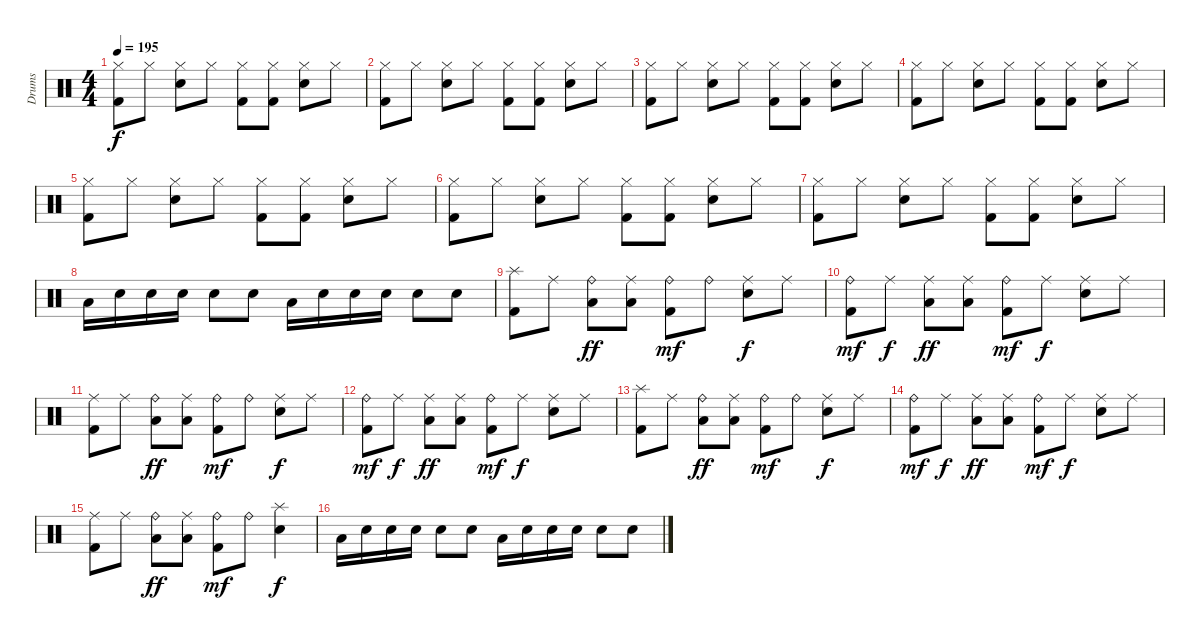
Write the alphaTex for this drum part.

\track ("Drums" "Drums") {instrument percussion}
\staff {score}
\articulation defaults
\ts (4 4)
\tempo 195
\clef neutral
\ks c
("Hi-Hat (closed)" "Kick (hit) 2").8{dy f} "Hi-Hat (closed)".8 ("Hi-Hat (closed)" "Snare (hit) 2").8 "Hi-Hat (closed)".8 ("Hi-Hat (closed)" "Kick (hit) 2").8 ("Hi-Hat (closed)" "Kick (hit) 2").8 ("Hi-Hat (closed)" "Snare (hit) 2").8 "Hi-Hat (closed)".8 |
("Hi-Hat (closed)" "Kick (hit) 2").8 "Hi-Hat (closed)".8 ("Hi-Hat (closed)" "Snare (hit) 2").8 "Hi-Hat (closed)".8 ("Hi-Hat (closed)" "Kick (hit) 2").8 ("Hi-Hat (closed)" "Kick (hit) 2").8 ("Hi-Hat (closed)" "Snare (hit) 2").8 "Hi-Hat (closed)".8 |
("Hi-Hat (closed)" "Kick (hit) 2").8 "Hi-Hat (closed)".8 ("Hi-Hat (closed)" "Snare (hit) 2").8 "Hi-Hat (closed)".8 ("Hi-Hat (closed)" "Kick (hit) 2").8 ("Hi-Hat (closed)" "Kick (hit) 2").8 ("Hi-Hat (closed)" "Snare (hit) 2").8 "Hi-Hat (closed)".8 |
("Hi-Hat (closed)" "Kick (hit) 2").8 "Hi-Hat (closed)".8 ("Hi-Hat (closed)" "Snare (hit) 2").8 "Hi-Hat (closed)".8 ("Hi-Hat (closed)" "Kick (hit) 2").8 ("Hi-Hat (closed)" "Kick (hit) 2").8 ("Hi-Hat (closed)" "Snare (hit) 2").8 "Hi-Hat (closed)".8 |
("Hi-Hat (closed)" "Kick (hit) 2").8 "Hi-Hat (closed)".8 ("Hi-Hat (closed)" "Snare (hit) 2").8 "Hi-Hat (closed)".8 ("Hi-Hat (closed)" "Kick (hit) 2").8 ("Hi-Hat (closed)" "Kick (hit) 2").8 ("Hi-Hat (closed)" "Snare (hit) 2").8 "Hi-Hat (closed)".8 |
("Hi-Hat (closed)" "Kick (hit) 2").8 "Hi-Hat (closed)".8 ("Hi-Hat (closed)" "Snare (hit) 2").8 "Hi-Hat (closed)".8 ("Hi-Hat (closed)" "Kick (hit) 2").8 ("Hi-Hat (closed)" "Kick (hit) 2").8 ("Hi-Hat (closed)" "Snare (hit) 2").8 "Hi-Hat (closed)".8 |
("Hi-Hat (closed)" "Kick (hit) 2").8 "Hi-Hat (closed)".8 ("Hi-Hat (closed)" "Snare (hit) 2").8 "Hi-Hat (closed)".8 ("Hi-Hat (closed)" "Kick (hit) 2").8 ("Hi-Hat (closed)" "Kick (hit) 2").8 ("Hi-Hat (closed)" "Snare (hit) 2").8 "Hi-Hat (closed)".8 |
"Low Tom (hit)".16 "Snare (hit) 2".16 "Snare (hit) 2".16 "Snare (hit) 2".16 "Snare (hit) 2".8 "Snare (hit) 2".8 "Low Tom (hit)".16 "Snare (hit) 2".16 "Snare (hit) 2".16 "Snare (hit) 2".16 "Snare (hit) 2".8 "Snare (hit) 2".8 |
("Splash (hit)" "Kick (hit) 2").8 "Ride (middle)".8 ("Ride (bell)" "Low Tom (hit)").8{dy ff} ("Ride (middle)" "Low Tom (hit)").8 ("Ride (bell)" "Kick (hit) 2").8{dy mf} "Ride (bell)".8 ("Ride (middle)" "Snare (hit) 2").8{dy f} "Ride (middle)".8 |
("Ride (bell)" "Kick (hit) 2").8{dy mf} "Ride (middle)".8{dy f} ("Ride (middle)" "Low Tom (hit)").8{dy ff} ("Ride (middle)" "Low Tom (hit)").8 ("Ride (bell)" "Kick (hit) 2").8{dy mf} "Ride (middle)".8{dy f} ("Ride (middle)" "Snare (hit) 2").8 "Ride (middle)".8 |
("Ride (middle)" "Kick (hit) 2").8 "Ride (middle)".8 ("Ride (bell)" "Low Tom (hit)").8{dy ff} ("Ride (middle)" "Low Tom (hit)").8 ("Ride (bell)" "Kick (hit) 2").8{dy mf} "Ride (bell)".8 ("Ride (middle)" "Snare (hit) 2").8{dy f} "Ride (middle)".8 |
("Ride (bell)" "Kick (hit) 2").8{dy mf} "Ride (middle)".8{dy f} ("Ride (middle)" "Low Tom (hit)").8{dy ff} ("Ride (middle)" "Low Tom (hit)").8 ("Ride (bell)" "Kick (hit) 2").8{dy mf} "Ride (middle)".8{dy f} ("Ride (middle)" "Snare (hit) 2").8 "Ride (middle)".8 |
("Splash (hit)" "Kick (hit) 2").8 "Ride (middle)".8 ("Ride (bell)" "Low Tom (hit)").8{dy ff} ("Ride (middle)" "Low Tom (hit)").8 ("Ride (bell)" "Kick (hit) 2").8{dy mf} "Ride (bell)".8 ("Ride (middle)" "Snare (hit) 2").8{dy f} "Ride (middle)".8 |
("Ride (bell)" "Kick (hit) 2").8{dy mf} "Ride (middle)".8{dy f} ("Ride (middle)" "Low Tom (hit)").8{dy ff} ("Ride (middle)" "Low Tom (hit)").8 ("Ride (bell)" "Kick (hit) 2").8{dy mf} "Ride (middle)".8{dy f} ("Ride (middle)" "Snare (hit) 2").8 "Ride (middle)".8 |
("Ride (middle)" "Kick (hit) 2").8 "Ride (middle)".8 ("Ride (bell)" "Low Tom (hit)").8{dy ff} ("Ride (middle)" "Low Tom (hit)").8 ("Ride (bell)" "Kick (hit) 2").8{dy mf} "Ride (bell)".8 ("Splash (hit)" "Snare (hit) 2").4{dy f} |
"Low Tom (hit)".16 "Snare (hit) 2".16 "Snare (hit) 2".16 "Snare (hit) 2".16 "Snare (hit) 2".8 "Snare (hit) 2".8 "Low Tom (hit)".16 "Snare (hit) 2".16 "Snare (hit) 2".16 "Snare (hit) 2".16 "Snare (hit) 2".8 "Snare (hit) 2".8
